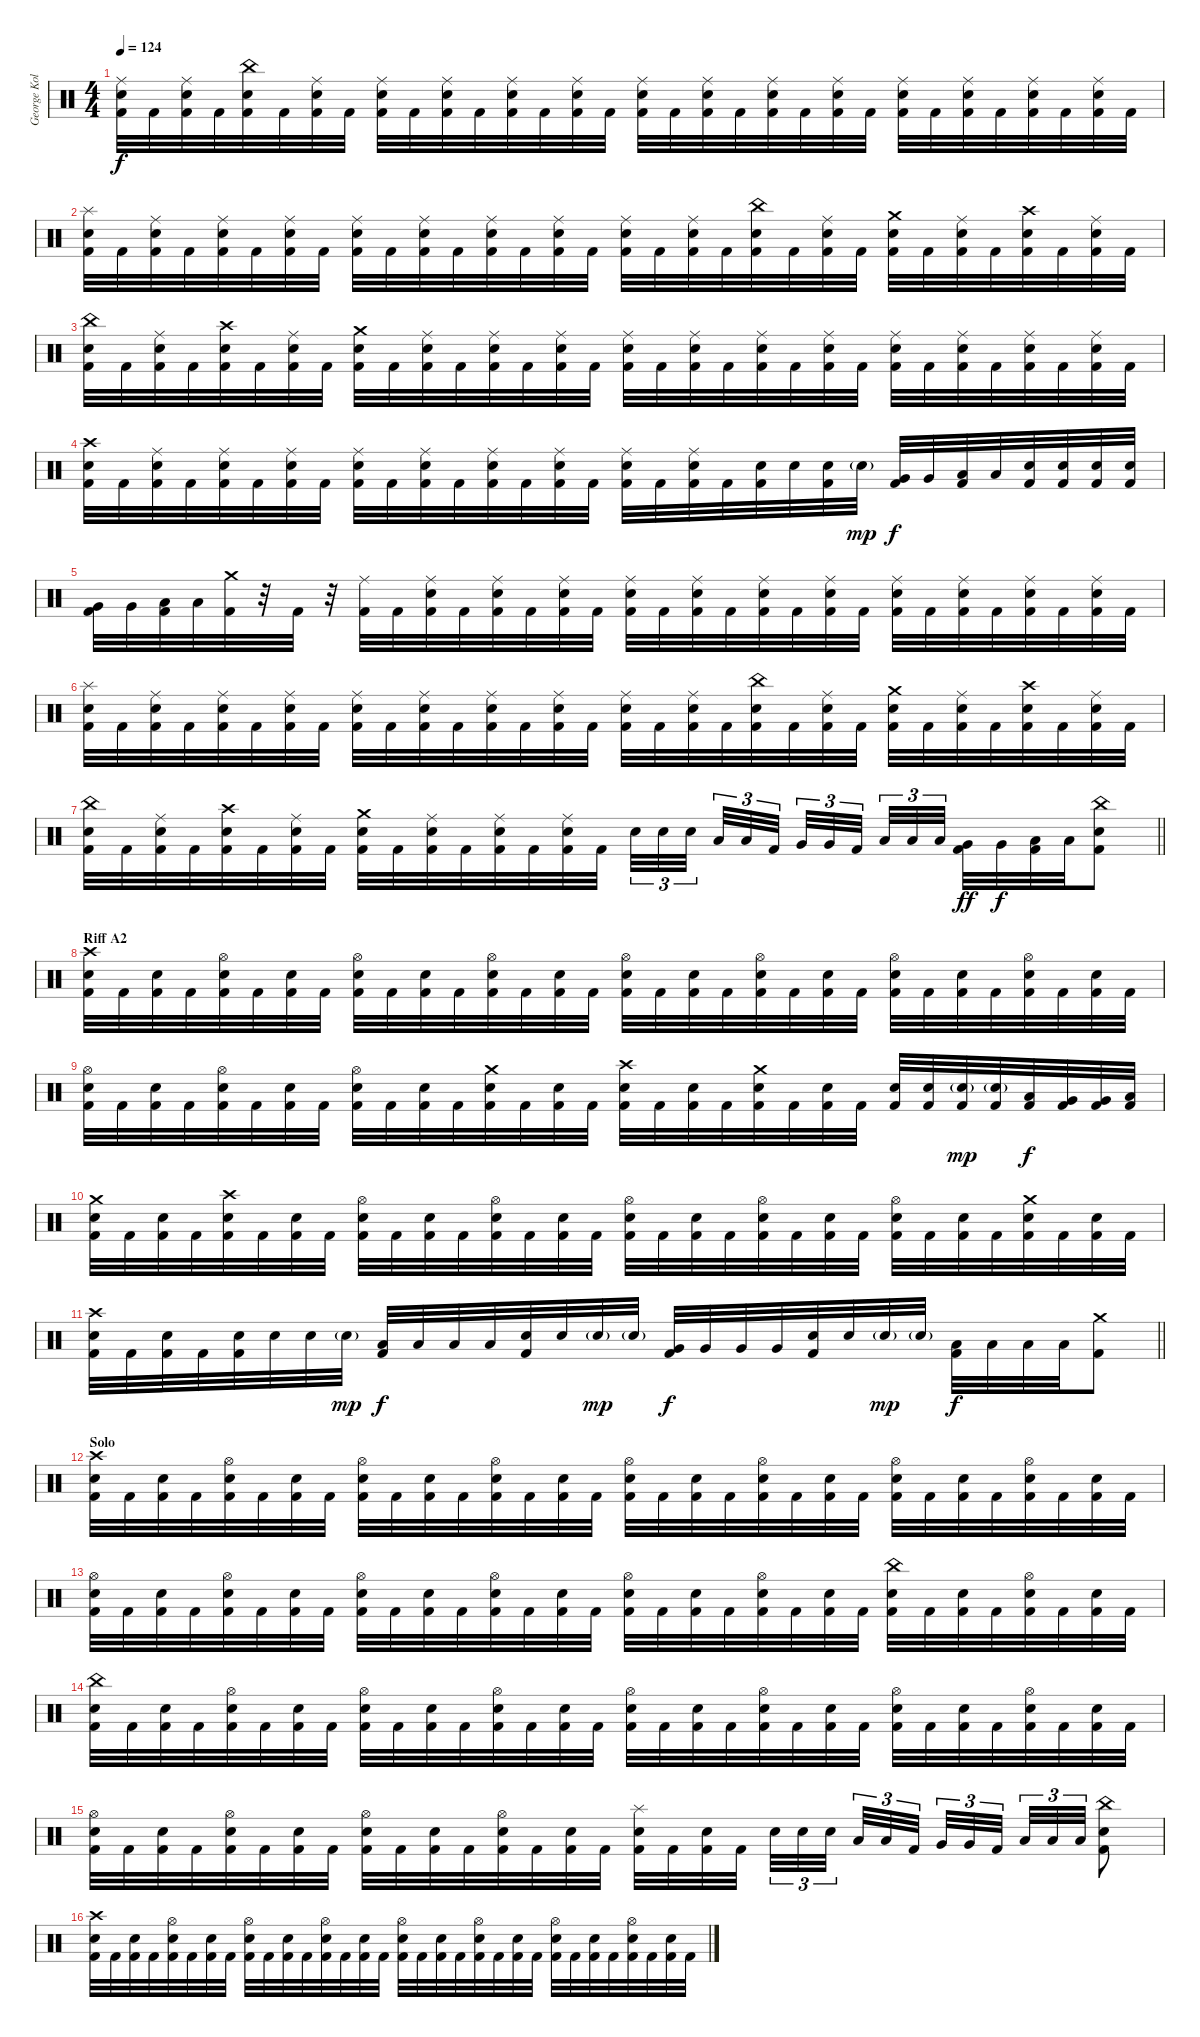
\track ("George Kollias" "George Kol") {instrument percussion}
\staff {score}
\articulation defaults
\ts (4 4)
\tempo 124
\clef neutral
\ks c
("Ride (middle)" "Electric Snare (hit)" "Kick (hit) 2").32{dy f} "Kick (hit) 2".32 ("Ride (middle)" "Electric Snare (hit)" "Kick (hit) 2").32 "Kick (hit) 2".32 ("China (hit)" "Electric Snare (hit)" "Kick (hit) 2").32 "Kick (hit) 2".32 ("Ride (middle)" "Electric Snare (hit)" "Kick (hit) 2").32 "Kick (hit) 2".32 ("Ride (middle)" "Electric Snare (hit)" "Kick (hit) 2").32 "Kick (hit) 2".32 ("Ride (middle)" "Electric Snare (hit)" "Kick (hit) 2").32 "Kick (hit) 2".32 ("Ride (middle)" "Electric Snare (hit)" "Kick (hit) 2").32 "Kick (hit) 2".32 ("Ride (middle)" "Electric Snare (hit)" "Kick (hit) 2").32 "Kick (hit) 2".32 ("Ride (middle)" "Electric Snare (hit)" "Kick (hit) 2").32 "Kick (hit) 2".32 ("Ride (middle)" "Electric Snare (hit)" "Kick (hit) 2").32 "Kick (hit) 2".32 ("Ride (middle)" "Electric Snare (hit)" "Kick (hit) 2").32 "Kick (hit) 2".32 ("Ride (middle)" "Electric Snare (hit)" "Kick (hit) 2").32 "Kick (hit) 2".32 ("Ride (middle)" "Electric Snare (hit)" "Kick (hit) 2").32 "Kick (hit) 2".32 ("Ride (middle)" "Electric Snare (hit)" "Kick (hit) 2").32 "Kick (hit) 2".32 ("Ride (middle)" "Electric Snare (hit)" "Kick (hit) 2").32 "Kick (hit) 2".32 ("Ride (middle)" "Electric Snare (hit)" "Kick (hit) 2").32 "Kick (hit) 2".32 |
("Splash (hit)" "Electric Snare (hit)" "Kick (hit) 2").32 "Kick (hit) 2".32 ("Ride (middle)" "Electric Snare (hit)" "Kick (hit) 2").32 "Kick (hit) 2".32 ("Ride (middle)" "Electric Snare (hit)" "Kick (hit) 2").32 "Kick (hit) 2".32 ("Ride (middle)" "Electric Snare (hit)" "Kick (hit) 2").32 "Kick (hit) 2".32 ("Ride (middle)" "Electric Snare (hit)" "Kick (hit) 2").32 "Kick (hit) 2".32 ("Ride (middle)" "Electric Snare (hit)" "Kick (hit) 2").32 "Kick (hit) 2".32 ("Ride (middle)" "Electric Snare (hit)" "Kick (hit) 2").32 "Kick (hit) 2".32 ("Ride (middle)" "Electric Snare (hit)" "Kick (hit) 2").32 "Kick (hit) 2".32 ("Ride (middle)" "Electric Snare (hit)" "Kick (hit) 2").32 "Kick (hit) 2".32 ("Ride (middle)" "Electric Snare (hit)" "Kick (hit) 2").32 "Kick (hit) 2".32 ("China (hit)" "Electric Snare (hit)" "Kick (hit) 2").32 "Kick (hit) 2".32 ("Ride (middle)" "Electric Snare (hit)" "Kick (hit) 2").32 "Kick (hit) 2".32 ("Crash medium (hit)" "Electric Snare (hit)" "Kick (hit) 2").32 "Kick (hit) 2".32 ("Ride (middle)" "Electric Snare (hit)" "Kick (hit) 2").32 "Kick (hit) 2".32 ("Crash high (hit)" "Electric Snare (hit)" "Kick (hit) 2").32 "Kick (hit) 2".32 ("Ride (middle)" "Electric Snare (hit)" "Kick (hit) 2").32 "Kick (hit) 2".32 |
("China (hit)" "Electric Snare (hit)" "Kick (hit) 2").32 "Kick (hit) 2".32 ("Ride (middle)" "Electric Snare (hit)" "Kick (hit) 2").32 "Kick (hit) 2".32 ("Crash high (hit)" "Electric Snare (hit)" "Kick (hit) 2").32 "Kick (hit) 2".32 ("Ride (middle)" "Electric Snare (hit)" "Kick (hit) 2").32 "Kick (hit) 2".32 ("Crash medium (hit)" "Electric Snare (hit)" "Kick (hit) 2").32 "Kick (hit) 2".32 ("Ride (middle)" "Electric Snare (hit)" "Kick (hit) 2").32 "Kick (hit) 2".32 ("Ride (middle)" "Electric Snare (hit)" "Kick (hit) 2").32 "Kick (hit) 2".32 ("Ride (middle)" "Electric Snare (hit)" "Kick (hit) 2").32 "Kick (hit) 2".32 ("Ride (middle)" "Electric Snare (hit)" "Kick (hit) 2").32 "Kick (hit) 2".32 ("Ride (middle)" "Electric Snare (hit)" "Kick (hit) 2").32 "Kick (hit) 2".32 ("Ride (middle)" "Electric Snare (hit)" "Kick (hit) 2").32 "Kick (hit) 2".32 ("Ride (middle)" "Electric Snare (hit)" "Kick (hit) 2").32 "Kick (hit) 2".32 ("Ride (middle)" "Electric Snare (hit)" "Kick (hit) 2").32 "Kick (hit) 2".32 ("Ride (middle)" "Electric Snare (hit)" "Kick (hit) 2").32 "Kick (hit) 2".32 ("Ride (middle)" "Electric Snare (hit)" "Kick (hit) 2").32 "Kick (hit) 2".32 ("Ride (middle)" "Electric Snare (hit)" "Kick (hit) 2").32 "Kick (hit) 2".32 |
("Crash high (hit)" "Electric Snare (hit)" "Kick (hit) 2").32 "Kick (hit) 2".32 ("Ride (middle)" "Electric Snare (hit)" "Kick (hit) 2").32 "Kick (hit) 2".32 ("Ride (middle)" "Electric Snare (hit)" "Kick (hit) 2").32 "Kick (hit) 2".32 ("Ride (middle)" "Electric Snare (hit)" "Kick (hit) 2").32 "Kick (hit) 2".32 ("Ride (middle)" "Electric Snare (hit)" "Kick (hit) 2").32 "Kick (hit) 2".32 ("Ride (middle)" "Electric Snare (hit)" "Kick (hit) 2").32 "Kick (hit) 2".32 ("Ride (middle)" "Electric Snare (hit)" "Kick (hit) 2").32 "Kick (hit) 2".32 ("Ride (middle)" "Electric Snare (hit)" "Kick (hit) 2").32 "Kick (hit) 2".32 ("Ride (middle)" "Electric Snare (hit)" "Kick (hit) 2").32 "Kick (hit) 2".32 ("Ride (middle)" "Electric Snare (hit)" "Kick (hit) 2").32 "Kick (hit) 2".32 ("Electric Snare (hit)" "Kick (hit) 2").32 "Electric Snare (hit)".32 ("Electric Snare (hit)" "Kick (hit) 2").32 "Electric Snare (hit)"{g}.32{dy mp} ("Very Low Tom (hit)" "Kick (hit) 2").32{dy f} "Very Low Tom (hit)".32 ("Low Floor Tom (hit)" "Kick (hit) 2").32 "Low Floor Tom (hit)".32 ("Electric Snare (hit)" "Kick (hit) 2").32 ("Electric Snare (hit)" "Kick (hit) 2").32 ("Electric Snare (hit)" "Kick (hit) 2").32 ("Electric Snare (hit)" "Kick (hit) 2").32 |
("Very Low Tom (hit)" "Kick (hit) 2").32 "Very Low Tom (hit)".32 ("Low Floor Tom (hit)" "Kick (hit) 2").32 "Low Floor Tom (hit)".32 ("Crash medium (hit)" "Kick (hit) 2").32 r.32 "Kick (hit) 2".32 r.32 ("Ride (middle)" "Kick (hit) 2").32 "Kick (hit) 2".32 ("Ride (middle)" "Electric Snare (hit)" "Kick (hit) 2").32 "Kick (hit) 2".32 ("Ride (middle)" "Electric Snare (hit)" "Kick (hit) 2").32 "Kick (hit) 2".32 ("Ride (middle)" "Electric Snare (hit)" "Kick (hit) 2").32 "Kick (hit) 2".32 ("Ride (middle)" "Electric Snare (hit)" "Kick (hit) 2").32 "Kick (hit) 2".32 ("Ride (middle)" "Electric Snare (hit)" "Kick (hit) 2").32 "Kick (hit) 2".32 ("Ride (middle)" "Electric Snare (hit)" "Kick (hit) 2").32 "Kick (hit) 2".32 ("Ride (middle)" "Electric Snare (hit)" "Kick (hit) 2").32 "Kick (hit) 2".32 ("Ride (middle)" "Electric Snare (hit)" "Kick (hit) 2").32 "Kick (hit) 2".32 ("Ride (middle)" "Electric Snare (hit)" "Kick (hit) 2").32 "Kick (hit) 2".32 ("Ride (middle)" "Electric Snare (hit)" "Kick (hit) 2").32 "Kick (hit) 2".32 ("Ride (middle)" "Electric Snare (hit)" "Kick (hit) 2").32 "Kick (hit) 2".32 |
("Splash (hit)" "Electric Snare (hit)" "Kick (hit) 2").32 "Kick (hit) 2".32 ("Ride (middle)" "Electric Snare (hit)" "Kick (hit) 2").32 "Kick (hit) 2".32 ("Ride (middle)" "Electric Snare (hit)" "Kick (hit) 2").32 "Kick (hit) 2".32 ("Ride (middle)" "Electric Snare (hit)" "Kick (hit) 2").32 "Kick (hit) 2".32 ("Ride (middle)" "Electric Snare (hit)" "Kick (hit) 2").32 "Kick (hit) 2".32 ("Ride (middle)" "Electric Snare (hit)" "Kick (hit) 2").32 "Kick (hit) 2".32 ("Ride (middle)" "Electric Snare (hit)" "Kick (hit) 2").32 "Kick (hit) 2".32 ("Ride (middle)" "Electric Snare (hit)" "Kick (hit) 2").32 "Kick (hit) 2".32 ("Ride (middle)" "Electric Snare (hit)" "Kick (hit) 2").32 "Kick (hit) 2".32 ("Ride (middle)" "Electric Snare (hit)" "Kick (hit) 2").32 "Kick (hit) 2".32 ("China (hit)" "Electric Snare (hit)" "Kick (hit) 2").32 "Kick (hit) 2".32 ("Ride (middle)" "Electric Snare (hit)" "Kick (hit) 2").32 "Kick (hit) 2".32 ("Crash medium (hit)" "Electric Snare (hit)" "Kick (hit) 2").32 "Kick (hit) 2".32 ("Ride (middle)" "Electric Snare (hit)" "Kick (hit) 2").32 "Kick (hit) 2".32 ("Crash high (hit)" "Electric Snare (hit)" "Kick (hit) 2").32 "Kick (hit) 2".32 ("Ride (middle)" "Electric Snare (hit)" "Kick (hit) 2").32 "Kick (hit) 2".32 |
\barLineRight lightlight
("China (hit)" "Electric Snare (hit)" "Kick (hit) 2").32 "Kick (hit) 2".32 ("Ride (middle)" "Electric Snare (hit)" "Kick (hit) 2").32 "Kick (hit) 2".32 ("Crash high (hit)" "Electric Snare (hit)" "Kick (hit) 2").32 "Kick (hit) 2".32 ("Ride (middle)" "Electric Snare (hit)" "Kick (hit) 2").32 "Kick (hit) 2".32 ("Crash medium (hit)" "Electric Snare (hit)" "Kick (hit) 2").32 "Kick (hit) 2".32 ("Ride (middle)" "Electric Snare (hit)" "Kick (hit) 2").32 "Kick (hit) 2".32 ("Ride (middle)" "Electric Snare (hit)" "Kick (hit) 2").32 "Kick (hit) 2".32 ("Ride (middle)" "Electric Snare (hit)" "Kick (hit) 2").32 "Kick (hit) 2".32 "Electric Snare (hit)".32{tu (3 2)} "Electric Snare (hit)".32{tu (3 2)} "Electric Snare (hit)".32{tu (3 2) beam splitsecondary} "Low Tom (hit)".32{tu (3 2)} "Low Tom (hit)".32{tu (3 2)} "Kick (hit) 2".32{tu (3 2) beam splitsecondary} "Very Low Tom (hit)".32{tu (3 2)} "Very Low Tom (hit)".32{tu (3 2)} "Kick (hit) 2".32{tu (3 2) beam splitsecondary} "Low Floor Tom (hit)".32{tu (3 2)} "Low Floor Tom (hit)".32{tu (3 2)} "Low Floor Tom (hit)".32{tu (3 2)} ("Very Low Tom (hit)" "Kick (hit) 2").32{dy ff} "Very Low Tom (hit)".32{dy f} ("Low Floor Tom (hit)" "Kick (hit) 2").32 "Low Floor Tom (hit)".32 ("China (hit)" "Electric Snare (hit)" "Kick (hit) 2").8 |
\section ("" "Riff A2")
("Crash high (hit)" "Electric Snare (hit)" "Kick (hit) 2").32 "Kick (hit) 2".32 ("Electric Snare (hit)" "Kick (hit) 2").32 "Kick (hit) 2".32 ("Hi-Hat (open)" "Electric Snare (hit)" "Kick (hit) 2").32 "Kick (hit) 2".32 ("Electric Snare (hit)" "Kick (hit) 2").32 "Kick (hit) 2".32 ("Hi-Hat (open)" "Electric Snare (hit)" "Kick (hit) 2").32 "Kick (hit) 2".32 ("Electric Snare (hit)" "Kick (hit) 2").32 "Kick (hit) 2".32 ("Hi-Hat (open)" "Electric Snare (hit)" "Kick (hit) 2").32 "Kick (hit) 2".32 ("Electric Snare (hit)" "Kick (hit) 2").32 "Kick (hit) 2".32 ("Hi-Hat (open)" "Electric Snare (hit)" "Kick (hit) 2").32 "Kick (hit) 2".32 ("Electric Snare (hit)" "Kick (hit) 2").32 "Kick (hit) 2".32 ("Hi-Hat (open)" "Electric Snare (hit)" "Kick (hit) 2").32 "Kick (hit) 2".32 ("Electric Snare (hit)" "Kick (hit) 2").32 "Kick (hit) 2".32 ("Hi-Hat (open)" "Electric Snare (hit)" "Kick (hit) 2").32 "Kick (hit) 2".32 ("Electric Snare (hit)" "Kick (hit) 2").32 "Kick (hit) 2".32 ("Hi-Hat (open)" "Electric Snare (hit)" "Kick (hit) 2").32 "Kick (hit) 2".32 ("Electric Snare (hit)" "Kick (hit) 2").32 "Kick (hit) 2".32 |
("Hi-Hat (open)" "Electric Snare (hit)" "Kick (hit) 2").32 "Kick (hit) 2".32 ("Electric Snare (hit)" "Kick (hit) 2").32 "Kick (hit) 2".32 ("Hi-Hat (open)" "Electric Snare (hit)" "Kick (hit) 2").32 "Kick (hit) 2".32 ("Electric Snare (hit)" "Kick (hit) 2").32 "Kick (hit) 2".32 ("Hi-Hat (open)" "Electric Snare (hit)" "Kick (hit) 2").32 "Kick (hit) 2".32 ("Electric Snare (hit)" "Kick (hit) 2").32 "Kick (hit) 2".32 ("Crash medium (hit)" "Electric Snare (hit)" "Kick (hit) 2").32 "Kick (hit) 2".32 ("Electric Snare (hit)" "Kick (hit) 2").32 "Kick (hit) 2".32 ("Crash high (hit)" "Electric Snare (hit)" "Kick (hit) 2").32 "Kick (hit) 2".32 ("Electric Snare (hit)" "Kick (hit) 2").32 "Kick (hit) 2".32 ("Crash medium (hit)" "Electric Snare (hit)" "Kick (hit) 2").32 "Kick (hit) 2".32 ("Electric Snare (hit)" "Kick (hit) 2").32 "Kick (hit) 2".32 ("Electric Snare (hit)" "Kick (hit) 2").32 ("Electric Snare (hit)" "Kick (hit) 2").32 ("Electric Snare (hit)"{g} "Kick (hit) 2").32{dy mp} ("Electric Snare (hit)"{g} "Kick (hit) 2").32 ("Low Tom (hit)" "Kick (hit) 2").32{dy f} ("Very Low Tom (hit)" "Kick (hit) 2").32 ("Very Low Tom (hit)" "Kick (hit) 2").32 ("Low Floor Tom (hit)" "Kick (hit) 2").32 |
("Crash medium (hit)" "Electric Snare (hit)" "Kick (hit) 2").32 "Kick (hit) 2".32 ("Electric Snare (hit)" "Kick (hit) 2").32 "Kick (hit) 2".32 ("Crash high (hit)" "Electric Snare (hit)" "Kick (hit) 2").32 "Kick (hit) 2".32 ("Electric Snare (hit)" "Kick (hit) 2").32 "Kick (hit) 2".32 ("Hi-Hat (open)" "Electric Snare (hit)" "Kick (hit) 2").32 "Kick (hit) 2".32 ("Electric Snare (hit)" "Kick (hit) 2").32 "Kick (hit) 2".32 ("Hi-Hat (open)" "Electric Snare (hit)" "Kick (hit) 2").32 "Kick (hit) 2".32 ("Electric Snare (hit)" "Kick (hit) 2").32 "Kick (hit) 2".32 ("Hi-Hat (open)" "Electric Snare (hit)" "Kick (hit) 2").32 "Kick (hit) 2".32 ("Electric Snare (hit)" "Kick (hit) 2").32 "Kick (hit) 2".32 ("Hi-Hat (open)" "Electric Snare (hit)" "Kick (hit) 2").32 "Kick (hit) 2".32 ("Electric Snare (hit)" "Kick (hit) 2").32 "Kick (hit) 2".32 ("Hi-Hat (open)" "Electric Snare (hit)" "Kick (hit) 2").32 "Kick (hit) 2".32 ("Electric Snare (hit)" "Kick (hit) 2").32 "Kick (hit) 2".32 ("Crash medium (hit)" "Electric Snare (hit)" "Kick (hit) 2").32 "Kick (hit) 2".32 ("Electric Snare (hit)" "Kick (hit) 2").32 "Kick (hit) 2".32 |
\barLineRight lightlight
("Crash high (hit)" "Electric Snare (hit)" "Kick (hit) 2").32 "Kick (hit) 2".32 ("Electric Snare (hit)" "Kick (hit) 2").32 "Kick (hit) 2".32 ("Electric Snare (hit)" "Kick (hit) 2").32 "Electric Snare (hit)".32 "Electric Snare (hit)".32 "Electric Snare (hit)"{g}.32{dy mp} ("Low Tom (hit)" "Kick (hit) 2").32{dy f} "Low Tom (hit)".32 "Low Tom (hit)".32 "Low Tom (hit)".32 ("Electric Snare (hit)" "Kick (hit) 2").32 "Electric Snare (hit)".32 "Electric Snare (hit)"{g}.32{dy mp} "Electric Snare (hit)"{g}.32 ("Very Low Tom (hit)" "Kick (hit) 2").32{dy f} "Very Low Tom (hit)".32 "Very Low Tom (hit)".32 "Very Low Tom (hit)".32 ("Electric Snare (hit)" "Kick (hit) 2").32 "Electric Snare (hit)".32 "Electric Snare (hit)"{g}.32{dy mp} "Electric Snare (hit)"{g}.32 ("Low Floor Tom (hit)" "Kick (hit) 2").32{dy f} "Low Floor Tom (hit)".32 "Low Floor Tom (hit)".32 "Low Floor Tom (hit)".32 ("Crash medium (hit)" "Kick (hit) 2").8 |
\section ("" "Solo")
("Crash high (hit)" "Electric Snare (hit)" "Kick (hit) 2").32 "Kick (hit) 2".32 ("Electric Snare (hit)" "Kick (hit) 2").32 "Kick (hit) 2".32 ("Hi-Hat (open)" "Electric Snare (hit)" "Kick (hit) 2").32 "Kick (hit) 2".32 ("Electric Snare (hit)" "Kick (hit) 2").32 "Kick (hit) 2".32 ("Hi-Hat (open)" "Electric Snare (hit)" "Kick (hit) 2").32 "Kick (hit) 2".32 ("Electric Snare (hit)" "Kick (hit) 2").32 "Kick (hit) 2".32 ("Hi-Hat (open)" "Electric Snare (hit)" "Kick (hit) 2").32 "Kick (hit) 2".32 ("Electric Snare (hit)" "Kick (hit) 2").32 "Kick (hit) 2".32 ("Hi-Hat (open)" "Electric Snare (hit)" "Kick (hit) 2").32 "Kick (hit) 2".32 ("Electric Snare (hit)" "Kick (hit) 2").32 "Kick (hit) 2".32 ("Hi-Hat (open)" "Electric Snare (hit)" "Kick (hit) 2").32 "Kick (hit) 2".32 ("Electric Snare (hit)" "Kick (hit) 2").32 "Kick (hit) 2".32 ("Hi-Hat (open)" "Electric Snare (hit)" "Kick (hit) 2").32 "Kick (hit) 2".32 ("Electric Snare (hit)" "Kick (hit) 2").32 "Kick (hit) 2".32 ("Hi-Hat (open)" "Electric Snare (hit)" "Kick (hit) 2").32 "Kick (hit) 2".32 ("Electric Snare (hit)" "Kick (hit) 2").32 "Kick (hit) 2".32 |
("Hi-Hat (open)" "Electric Snare (hit)" "Kick (hit) 2").32 "Kick (hit) 2".32 ("Electric Snare (hit)" "Kick (hit) 2").32 "Kick (hit) 2".32 ("Hi-Hat (open)" "Electric Snare (hit)" "Kick (hit) 2").32 "Kick (hit) 2".32 ("Electric Snare (hit)" "Kick (hit) 2").32 "Kick (hit) 2".32 ("Hi-Hat (open)" "Electric Snare (hit)" "Kick (hit) 2").32 "Kick (hit) 2".32 ("Electric Snare (hit)" "Kick (hit) 2").32 "Kick (hit) 2".32 ("Hi-Hat (open)" "Electric Snare (hit)" "Kick (hit) 2").32 "Kick (hit) 2".32 ("Electric Snare (hit)" "Kick (hit) 2").32 "Kick (hit) 2".32 ("Hi-Hat (open)" "Electric Snare (hit)" "Kick (hit) 2").32 "Kick (hit) 2".32 ("Electric Snare (hit)" "Kick (hit) 2").32 "Kick (hit) 2".32 ("Hi-Hat (open)" "Electric Snare (hit)" "Kick (hit) 2").32 "Kick (hit) 2".32 ("Electric Snare (hit)" "Kick (hit) 2").32 "Kick (hit) 2".32 ("China (hit)" "Electric Snare (hit)" "Kick (hit) 2").32 "Kick (hit) 2".32 ("Electric Snare (hit)" "Kick (hit) 2").32 "Kick (hit) 2".32 ("Hi-Hat (open)" "Electric Snare (hit)" "Kick (hit) 2").32 "Kick (hit) 2".32 ("Electric Snare (hit)" "Kick (hit) 2").32 "Kick (hit) 2".32 |
("China (hit)" "Electric Snare (hit)" "Kick (hit) 2").32 "Kick (hit) 2".32 ("Electric Snare (hit)" "Kick (hit) 2").32 "Kick (hit) 2".32 ("Hi-Hat (open)" "Electric Snare (hit)" "Kick (hit) 2").32 "Kick (hit) 2".32 ("Electric Snare (hit)" "Kick (hit) 2").32 "Kick (hit) 2".32 ("Hi-Hat (open)" "Electric Snare (hit)" "Kick (hit) 2").32 "Kick (hit) 2".32 ("Electric Snare (hit)" "Kick (hit) 2").32 "Kick (hit) 2".32 ("Hi-Hat (open)" "Electric Snare (hit)" "Kick (hit) 2").32 "Kick (hit) 2".32 ("Electric Snare (hit)" "Kick (hit) 2").32 "Kick (hit) 2".32 ("Hi-Hat (open)" "Electric Snare (hit)" "Kick (hit) 2").32 "Kick (hit) 2".32 ("Electric Snare (hit)" "Kick (hit) 2").32 "Kick (hit) 2".32 ("Hi-Hat (open)" "Electric Snare (hit)" "Kick (hit) 2").32 "Kick (hit) 2".32 ("Electric Snare (hit)" "Kick (hit) 2").32 "Kick (hit) 2".32 ("Hi-Hat (open)" "Electric Snare (hit)" "Kick (hit) 2").32 "Kick (hit) 2".32 ("Electric Snare (hit)" "Kick (hit) 2").32 "Kick (hit) 2".32 ("Hi-Hat (open)" "Electric Snare (hit)" "Kick (hit) 2").32 "Kick (hit) 2".32 ("Electric Snare (hit)" "Kick (hit) 2").32 "Kick (hit) 2".32 |
("Hi-Hat (open)" "Electric Snare (hit)" "Kick (hit) 2").32 "Kick (hit) 2".32 ("Electric Snare (hit)" "Kick (hit) 2").32 "Kick (hit) 2".32 ("Hi-Hat (open)" "Electric Snare (hit)" "Kick (hit) 2").32 "Kick (hit) 2".32 ("Electric Snare (hit)" "Kick (hit) 2").32 "Kick (hit) 2".32 ("Hi-Hat (open)" "Electric Snare (hit)" "Kick (hit) 2").32 "Kick (hit) 2".32 ("Electric Snare (hit)" "Kick (hit) 2").32 "Kick (hit) 2".32 ("Hi-Hat (open)" "Electric Snare (hit)" "Kick (hit) 2").32 "Kick (hit) 2".32 ("Electric Snare (hit)" "Kick (hit) 2").32 "Kick (hit) 2".32 ("Splash (hit)" "Electric Snare (hit)" "Kick (hit) 2").32 "Kick (hit) 2".32 ("Electric Snare (hit)" "Kick (hit) 2").32 "Kick (hit) 2".32{beam splitsecondary} "Electric Snare (hit)".32{tu (3 2)} "Electric Snare (hit)".32{tu (3 2)} "Electric Snare (hit)".32{tu (3 2) beam splitsecondary} "Low Tom (hit)".32{tu (3 2)} "Low Tom (hit)".32{tu (3 2)} "Kick (hit) 2".32{tu (3 2)} "Very Low Tom (hit)".32{tu (3 2)} "Very Low Tom (hit)".32{tu (3 2)} "Kick (hit) 2".32{tu (3 2) beam splitsecondary} "Low Floor Tom (hit)".32{tu (3 2)} "Low Floor Tom (hit)".32{tu (3 2)} "Low Floor Tom (hit)".32{tu (3 2)} ("China (hit)" "Electric Snare (hit)" "Kick (hit) 2").8 |
("Crash high (hit)" "Electric Snare (hit)" "Kick (hit) 2").32 "Kick (hit) 2".32 ("Electric Snare (hit)" "Kick (hit) 2").32 "Kick (hit) 2".32 ("Hi-Hat (open)" "Electric Snare (hit)" "Kick (hit) 2").32 "Kick (hit) 2".32 ("Electric Snare (hit)" "Kick (hit) 2").32 "Kick (hit) 2".32 ("Hi-Hat (open)" "Electric Snare (hit)" "Kick (hit) 2").32 "Kick (hit) 2".32 ("Electric Snare (hit)" "Kick (hit) 2").32 "Kick (hit) 2".32 ("Hi-Hat (open)" "Electric Snare (hit)" "Kick (hit) 2").32 "Kick (hit) 2".32 ("Electric Snare (hit)" "Kick (hit) 2").32 "Kick (hit) 2".32 ("Hi-Hat (open)" "Electric Snare (hit)" "Kick (hit) 2").32 "Kick (hit) 2".32 ("Electric Snare (hit)" "Kick (hit) 2").32 "Kick (hit) 2".32 ("Hi-Hat (open)" "Electric Snare (hit)" "Kick (hit) 2").32 "Kick (hit) 2".32 ("Electric Snare (hit)" "Kick (hit) 2").32 "Kick (hit) 2".32 ("Hi-Hat (open)" "Electric Snare (hit)" "Kick (hit) 2").32 "Kick (hit) 2".32 ("Electric Snare (hit)" "Kick (hit) 2").32 "Kick (hit) 2".32 ("Hi-Hat (open)" "Electric Snare (hit)" "Kick (hit) 2").32 "Kick (hit) 2".32 ("Electric Snare (hit)" "Kick (hit) 2").32 "Kick (hit) 2".32
